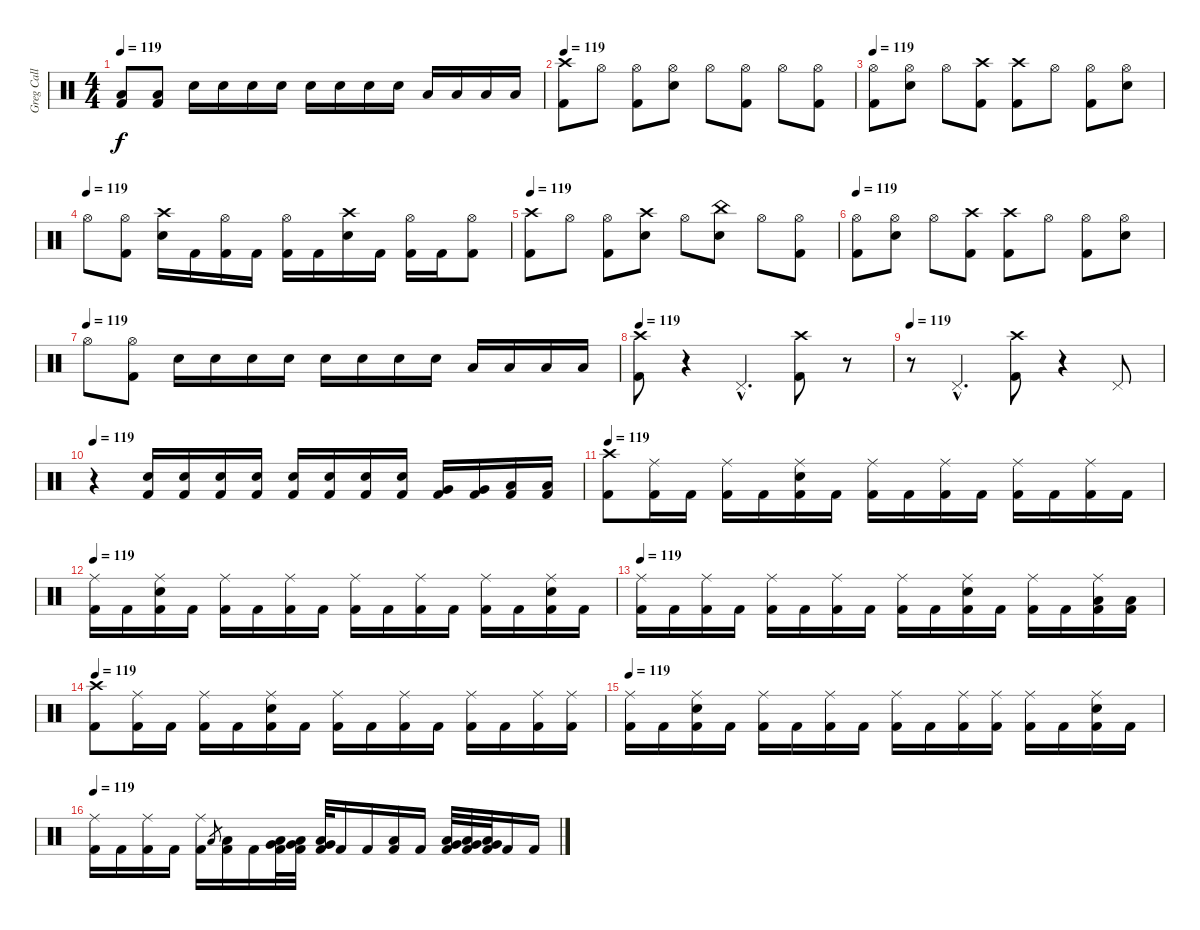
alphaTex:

\track ("Greg Call (Drums)" "Greg Call ") {instrument percussion}
\staff {score}
\articulation defaults
\ts (4 4)
\tempo 119
\clef neutral
\ks c
("Kick (hit) 2" "Low Tom (hit)").8{dy f} ("Kick (hit) 2" "Low Floor Tom (hit)").8 "Snare (hit) 2".16 "Snare (hit) 2".16 "Snare (hit) 2".16 "Snare (hit) 2".16 "Snare (hit) 2".16 "Snare (hit) 2".16 "Snare (hit) 2".16 "Snare (hit) 2".16 "Low Tom (hit)".16 "Low Tom (hit)".16 "Low Floor Tom (hit)".16 "Low Floor Tom (hit)".16 |
\tempo 119
("Crash high (hit)" "Kick (hit) 2").8 "Hi-Hat (open)".8 ("Hi-Hat (open)" "Kick (hit) 2").8 ("Hi-Hat (open)" "Snare (hit) 2").8 "Hi-Hat (open)".8 ("Hi-Hat (open)" "Kick (hit) 2").8 "Hi-Hat (open)".8 ("Hi-Hat (open)" "Kick (hit) 2").8 |
\tempo 119
("Hi-Hat (open)" "Kick (hit) 2").8 ("Hi-Hat (open)" "Snare (hit) 2").8 "Hi-Hat (open)".8 ("Crash high (hit)" "Kick (hit) 2").8 ("Crash high (hit)" "Kick (hit) 2").8 "Hi-Hat (open)".8 ("Hi-Hat (open)" "Kick (hit) 2").8 ("Hi-Hat (open)" "Snare (hit) 2").8 |
\tempo (119)
"Hi-Hat (open)".8 ("Hi-Hat (open)" "Kick (hit) 2").8 ("Crash high (hit)" "Snare (hit) 2").16 "Kick (hit) 2".16 ("Hi-Hat (open)" "Kick (hit) 2").16 "Kick (hit) 2".16 ("Hi-Hat (open)" "Kick (hit) 2").16 "Kick (hit) 2".16 ("Crash high (hit)" "Snare (hit) 2").16 "Kick (hit) 2".16 ("Hi-Hat (open)" "Kick (hit) 2").16 "Kick (hit) 2".16 ("Hi-Hat (open)" "Kick (hit) 2").8 |
\tempo 119
("Crash high (hit)" "Kick (hit) 2").8 "Hi-Hat (open)".8 ("Hi-Hat (open)" "Kick (hit) 2").8 ("Crash high (hit)" "Snare (hit) 2").8 "Hi-Hat (open)".8 ("China (hit)" "Snare (hit) 2").8 "Hi-Hat (open)".8 ("Hi-Hat (open)" "Kick (hit) 2").8 |
\tempo 119
("Hi-Hat (open)" "Kick (hit) 2").8 ("Hi-Hat (open)" "Snare (hit) 2").8 "Hi-Hat (open)".8 ("Crash high (hit)" "Kick (hit) 2").8 ("Crash high (hit)" "Kick (hit) 2").8 "Hi-Hat (open)".8 ("Hi-Hat (open)" "Kick (hit) 2").8 ("Hi-Hat (open)" "Snare (hit) 2").8 |
\tempo (119)
"Hi-Hat (open)".8 ("Hi-Hat (open)" "Kick (hit) 2").8 "Snare (hit) 2".16 "Snare (hit) 2".16 "Snare (hit) 2".16 "Snare (hit) 2".16 "Snare (hit) 2".16 "Snare (hit) 2".16 "Snare (hit) 2".16 "Snare (hit) 2".16 "Low Tom (hit)".16 "Low Tom (hit)".16 "Low Floor Tom (hit)".16 "Low Floor Tom (hit)".16 |
\tempo 119
("Crash high (hit)" "Kick (hit) 2").8 r.4{volume 0} "Pedal Hi-Hat (hit)"{hac}.4{d volume 16} ("Crash high (hit)" "Kick (hit) 2").8 r.8{volume 0} |
\tempo 119
r.8 "Pedal Hi-Hat (hit)"{hac}.4{d volume 16} ("Crash high (hit)" "Kick (hit) 2").8 r.4{volume 0} "Pedal Hi-Hat (hit)".8{volume 16} |
\tempo 119
r.4 ("Snare (hit) 2" "Kick (hit) 2").16 ("Snare (hit) 2" "Kick (hit) 2").16 ("Snare (hit) 2" "Kick (hit) 2").16 ("Snare (hit) 2" "Kick (hit) 2").16 ("Snare (hit) 2" "Kick (hit) 2").16 ("Snare (hit) 2" "Kick (hit) 2").16 ("Snare (hit) 2" "Kick (hit) 2").16 ("Snare (hit) 2" "Kick (hit) 2").16 ("Very Low Tom (hit)" "Kick (hit) 2").16 ("Very Low Tom (hit)" "Kick (hit) 2").16 ("Low Floor Tom (hit)" "Kick (hit) 2").16 ("Low Floor Tom (hit)" "Kick (hit) 2").16 |
\tempo 119
("Crash high (hit)" "Kick (hit) 2").8 ("Ride (middle)" "Kick (hit) 2").16 "Kick (hit) 2".16 ("Ride (middle)" "Kick (hit) 2").16 "Kick (hit) 2".16 ("Snare (hit) 2" "Ride (middle)" "Kick (hit) 2").16 "Kick (hit) 2".16 ("Ride (middle)" "Kick (hit) 2").16 "Kick (hit) 2".16 ("Ride (middle)" "Kick (hit) 2").16 "Kick (hit) 2".16 ("Ride (middle)" "Kick (hit) 2").16 "Kick (hit) 2".16 ("Ride (middle)" "Kick (hit) 2").16 "Kick (hit) 2".16 |
\tempo 119
("Ride (middle)" "Kick (hit) 2").16 "Kick (hit) 2".16 ("Snare (hit) 2" "Ride (middle)" "Kick (hit) 2").16 "Kick (hit) 2".16 ("Ride (middle)" "Kick (hit) 2").16 "Kick (hit) 2".16 ("Ride (middle)" "Kick (hit) 2").16 "Kick (hit) 2".16 ("Ride (middle)" "Kick (hit) 2").16 "Kick (hit) 2".16 ("Ride (middle)" "Kick (hit) 2").16 "Kick (hit) 2".16 ("Ride (middle)" "Kick (hit) 2").16 "Kick (hit) 2".16 ("Snare (hit) 2" "Ride (middle)" "Kick (hit) 2").16 "Kick (hit) 2".16 |
\tempo 119
("Ride (middle)" "Kick (hit) 2").16 "Kick (hit) 2".16 ("Ride (middle)" "Kick (hit) 2").16 "Kick (hit) 2".16 ("Ride (middle)" "Kick (hit) 2").16 "Kick (hit) 2".16 ("Ride (middle)" "Kick (hit) 2").16 "Kick (hit) 2".16 ("Ride (middle)" "Kick (hit) 2").16 "Kick (hit) 2".16 ("Ride (middle)" "Snare (hit) 2" "Kick (hit) 2").16 "Kick (hit) 2".16 ("Ride (middle)" "Kick (hit) 2").16 "Kick (hit) 2".16 ("Low Floor Tom (hit)" "Ride (middle)" "Kick (hit) 2").16 ("Low Floor Tom (hit)" "Kick (hit) 2").16 |
\tempo 119
("Crash high (hit)" "Kick (hit) 2").8 ("Ride (middle)" "Kick (hit) 2").16 "Kick (hit) 2".16 ("Ride (middle)" "Kick (hit) 2").16 "Kick (hit) 2".16 ("Snare (hit) 2" "Ride (middle)" "Kick (hit) 2").16 "Kick (hit) 2".16 ("Ride (middle)" "Kick (hit) 2").16 "Kick (hit) 2".16 ("Ride (middle)" "Kick (hit) 2").16 "Kick (hit) 2".16 ("Ride (middle)" "Kick (hit) 2").16 "Kick (hit) 2".16 ("Ride (middle)" "Kick (hit) 2").16 ("Ride (middle)" "Kick (hit) 2").16 |
\tempo 119
("Ride (middle)" "Kick (hit) 2").16 "Kick (hit) 2".16 ("Snare (hit) 2" "Ride (middle)" "Kick (hit) 2").16 "Kick (hit) 2".16 ("Ride (middle)" "Kick (hit) 2").16 "Kick (hit) 2".16 ("Ride (middle)" "Kick (hit) 2").16 "Kick (hit) 2".16 ("Ride (middle)" "Kick (hit) 2").16 "Kick (hit) 2".16 ("Ride (middle)" "Kick (hit) 2").16 ("Ride (middle)" "Kick (hit) 2").16 ("Ride (middle)" "Kick (hit) 2").16 "Kick (hit) 2".16 ("Snare (hit) 2" "Ride (middle)" "Kick (hit) 2").16 "Kick (hit) 2".16 |
\tempo 119
("Ride (middle)" "Kick (hit) 2").16 "Kick (hit) 2".16 ("Ride (middle)" "Kick (hit) 2").16 "Kick (hit) 2".16 ("Ride (middle)" "Kick (hit) 2").16 "Low Floor Tom (hit)".8{gr} ("Low Floor Tom (hit)" "Kick (hit) 2").16 "Kick (hit) 2".16 ("Very Low Tom (hit)" "Low Tom (hit)" "Kick (hit) 2").32 ("Very Low Tom (hit)" "Low Tom (hit)" "Kick (hit) 2").32 ("Very Low Tom (hit)" "Low Tom (hit)" "Kick (hit) 2").32 "Kick (hit) 2".16 "Kick (hit) 2".16 ("Low Floor Tom (hit)" "Kick (hit) 2").16 "Kick (hit) 2".16 ("Very Low Tom (hit)" "Low Tom (hit)" "Kick (hit) 2").32 ("Very Low Tom (hit)" "Low Tom (hit)" "Kick (hit) 2").32 ("Low Tom (hit)" "Very Low Tom (hit)" "Kick (hit) 2").32 "Kick (hit) 2".16 "Kick (hit) 2".16
